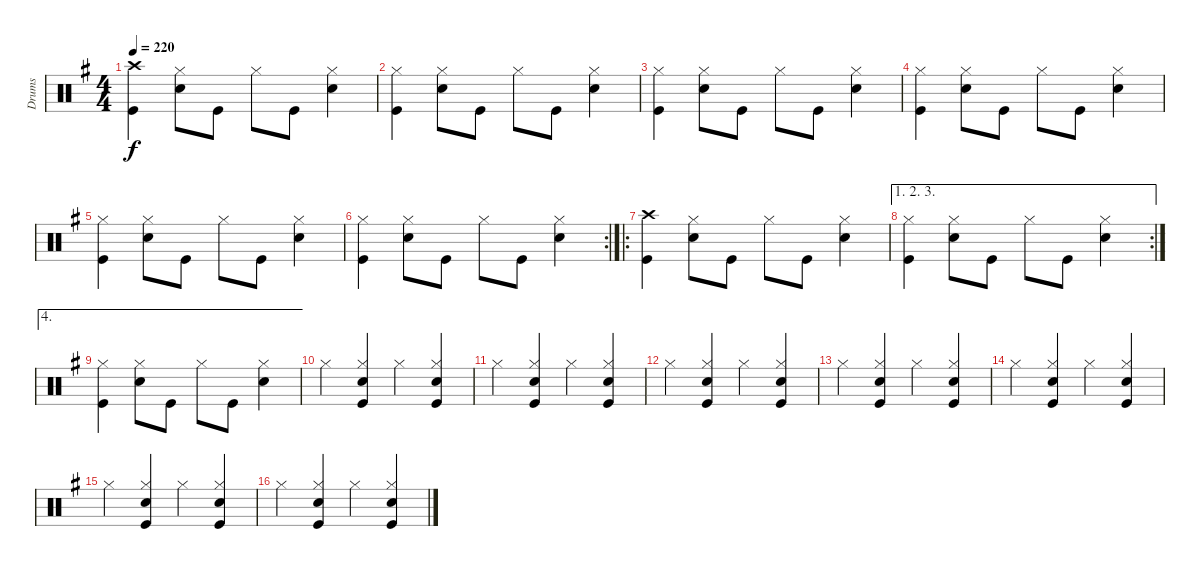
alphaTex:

\track ("Drums" "Drums") {instrument percussion}
\staff {score}
\articulation defaults
\ts (4 4)
\tempo 220
\clef neutral
\ks g
("Crash high (hit)" "Kick (hit)").4{dy f} ("Hi-Hat (closed)" "Snare (hit) 2").8 "Kick (hit)".8 "Hi-Hat (closed)".8 "Kick (hit)".8 ("Hi-Hat (closed)" "Snare (hit) 2").4 |
("Hi-Hat (closed)" "Kick (hit)").4 ("Hi-Hat (closed)" "Snare (hit) 2").8 "Kick (hit)".8 "Hi-Hat (closed)".8 "Kick (hit)".8 ("Hi-Hat (closed)" "Snare (hit) 2").4 |
("Hi-Hat (closed)" "Kick (hit)").4 ("Hi-Hat (closed)" "Snare (hit) 2").8 "Kick (hit)".8 "Hi-Hat (closed)".8 "Kick (hit)".8 ("Hi-Hat (closed)" "Snare (hit) 2").4 |
("Hi-Hat (closed)" "Kick (hit)").4 ("Hi-Hat (closed)" "Snare (hit) 2").8 "Kick (hit)".8 "Hi-Hat (closed)".8 "Kick (hit)".8 ("Hi-Hat (closed)" "Snare (hit) 2").4 |
("Hi-Hat (closed)" "Kick (hit)").4 ("Hi-Hat (closed)" "Snare (hit) 2").8 "Kick (hit)".8 "Hi-Hat (closed)".8 "Kick (hit)".8 ("Hi-Hat (closed)" "Snare (hit) 2").4 |
\rc 2
("Hi-Hat (closed)" "Kick (hit)").4 ("Hi-Hat (closed)" "Snare (hit) 2").8 "Kick (hit)".8 "Hi-Hat (closed)".8 "Kick (hit)".8 ("Hi-Hat (closed)" "Snare (hit) 2").4 |
\ro
("Crash high (hit)" "Kick (hit)").4 ("Hi-Hat (closed)" "Snare (hit) 2").8 "Kick (hit)".8 "Hi-Hat (closed)".8 "Kick (hit)".8 ("Hi-Hat (closed)" "Snare (hit) 2").4 |
\ae (1 2 3)
\rc 2
("Hi-Hat (closed)" "Kick (hit)").4 ("Hi-Hat (closed)" "Snare (hit) 2").8 "Kick (hit)".8 "Hi-Hat (closed)".8 "Kick (hit)".8 ("Hi-Hat (closed)" "Snare (hit) 2").4 |
\ae 4
("Hi-Hat (closed)" "Kick (hit)").4 ("Hi-Hat (closed)" "Snare (hit) 2").8 "Kick (hit)".8 "Hi-Hat (closed)".8 "Kick (hit)".8 ("Hi-Hat (closed)" "Snare (hit) 2").4 |
"Hi-Hat (closed)".4 ("Hi-Hat (closed)" "Snare (hit) 2" "Kick (hit)").4 "Hi-Hat (closed)".4 ("Hi-Hat (closed)" "Snare (hit) 2" "Kick (hit)").4 |
"Hi-Hat (closed)".4 ("Hi-Hat (closed)" "Snare (hit) 2" "Kick (hit)").4 "Hi-Hat (closed)".4 ("Hi-Hat (closed)" "Snare (hit) 2" "Kick (hit)").4 |
"Hi-Hat (closed)".4 ("Hi-Hat (closed)" "Snare (hit) 2" "Kick (hit)").4 "Hi-Hat (closed)".4 ("Hi-Hat (closed)" "Snare (hit) 2" "Kick (hit)").4 |
"Hi-Hat (closed)".4 ("Hi-Hat (closed)" "Snare (hit) 2" "Kick (hit)").4 "Hi-Hat (closed)".4 ("Hi-Hat (closed)" "Snare (hit) 2" "Kick (hit)").4 |
"Hi-Hat (closed)".4 ("Hi-Hat (closed)" "Snare (hit) 2" "Kick (hit)").4 "Hi-Hat (closed)".4 ("Hi-Hat (closed)" "Snare (hit) 2" "Kick (hit)").4 |
"Hi-Hat (closed)".4 ("Hi-Hat (closed)" "Snare (hit) 2" "Kick (hit)").4 "Hi-Hat (closed)".4 ("Hi-Hat (closed)" "Snare (hit) 2" "Kick (hit)").4 |
"Hi-Hat (closed)".4 ("Hi-Hat (closed)" "Snare (hit) 2" "Kick (hit)").4 "Hi-Hat (closed)".4 ("Hi-Hat (closed)" "Snare (hit) 2" "Kick (hit)").4
